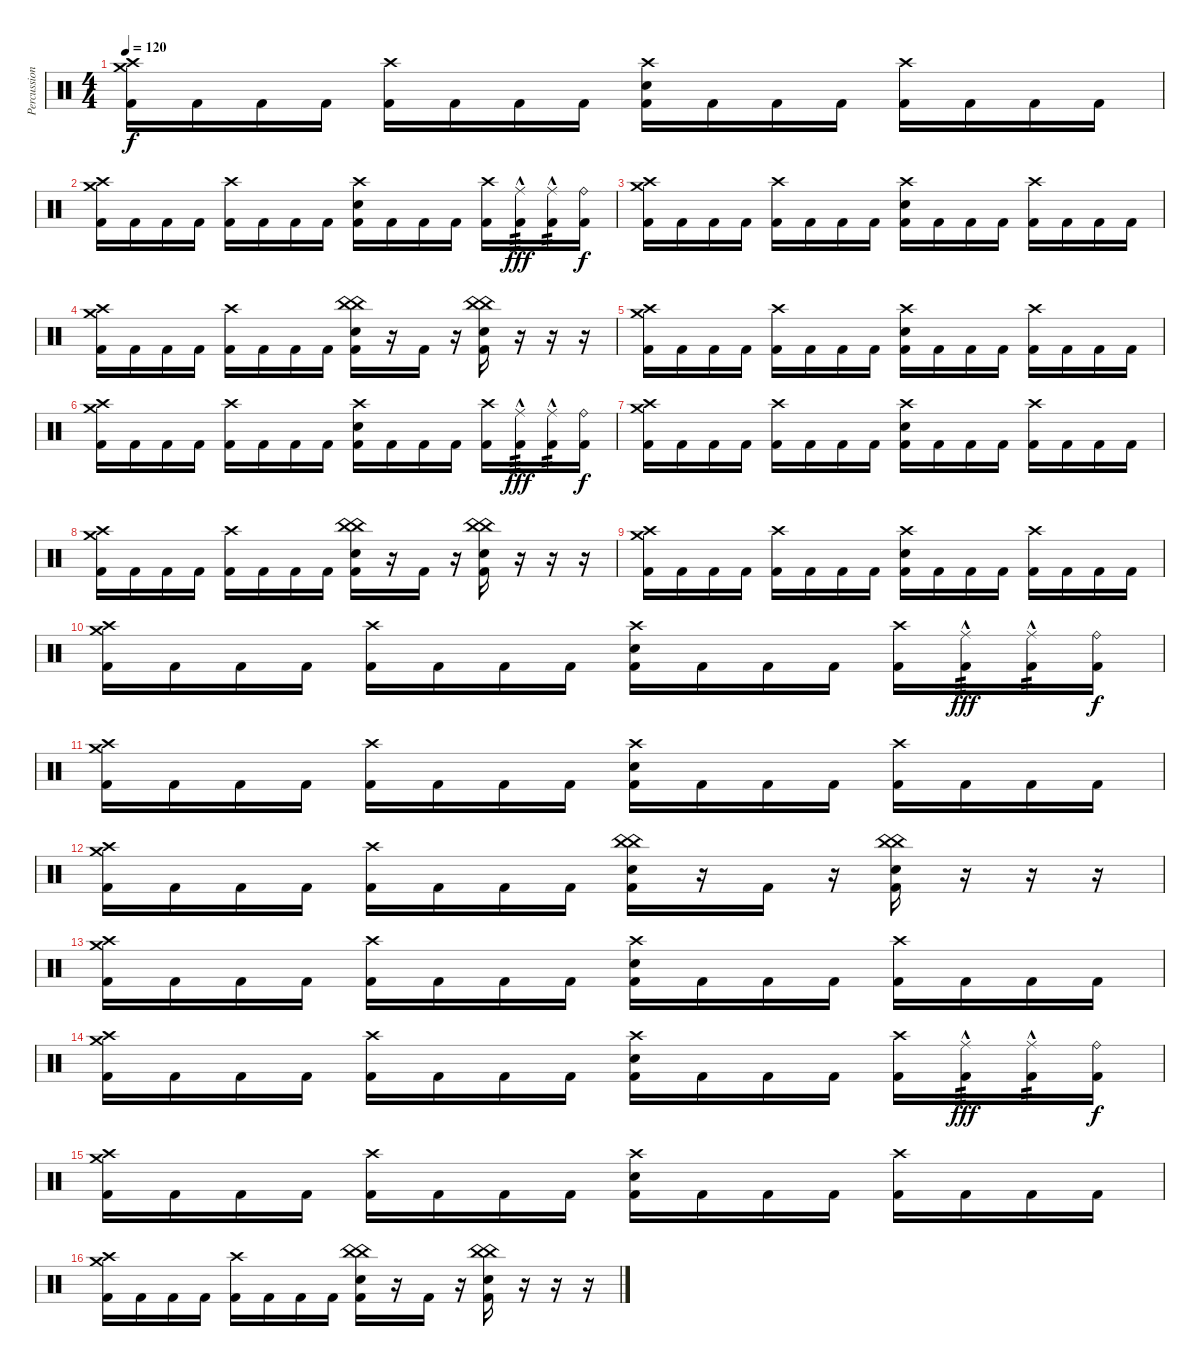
\track ("Percussion" "Percussion") {instrument percussion}
\staff {score}
\articulation defaults
\ts (4 4)
\tempo 120
\clef neutral
\ks c
("Crash medium (hit)" "Crash high (hit)" "Kick (hit) 2").16{dy f} "Kick (hit) 2".16 "Kick (hit) 2".16 "Kick (hit) 2".16 ("Crash high (hit)" "Kick (hit) 2").16 "Kick (hit) 2".16 "Kick (hit) 2".16 "Kick (hit) 2".16 ("Crash high (hit)" "Electric Snare (hit)" "Kick (hit) 2").16 "Kick (hit) 2".16 "Kick (hit) 2".16 "Kick (hit) 2".16 ("Crash high (hit)" "Kick (hit) 2").16 "Kick (hit) 2".16 "Kick (hit) 2".16 "Kick (hit) 2".16 |
("Crash medium (hit)" "Crash high (hit)" "Kick (hit) 2").16 "Kick (hit) 2".16 "Kick (hit) 2".16 "Kick (hit) 2".16 ("Crash high (hit)" "Kick (hit) 2").16 "Kick (hit) 2".16 "Kick (hit) 2".16 "Kick (hit) 2".16 ("Crash high (hit)" "Electric Snare (hit)" "Kick (hit) 2").16 "Kick (hit) 2".16 "Kick (hit) 2".16 "Kick (hit) 2".16 ("Crash high (hit)" "Kick (hit) 2").16 ("Ride (middle)"{hac} "Kick (hit) 2").16{tp 3 dy fff} ("Ride (middle)"{hac} "Kick (hit) 2").16{tp 2} ("Ride (bell)" "Kick (hit) 2").16{dy f} |
("Crash medium (hit)" "Crash high (hit)" "Kick (hit) 2").16 "Kick (hit) 2".16 "Kick (hit) 2".16 "Kick (hit) 2".16 ("Crash high (hit)" "Kick (hit) 2").16 "Kick (hit) 2".16 "Kick (hit) 2".16 "Kick (hit) 2".16 ("Crash high (hit)" "Electric Snare (hit)" "Kick (hit) 2").16 "Kick (hit) 2".16 "Kick (hit) 2".16 "Kick (hit) 2".16 ("Crash high (hit)" "Kick (hit) 2").16 "Kick (hit) 2".16 "Kick (hit) 2".16 "Kick (hit) 2".16 |
("Crash medium (hit)" "Crash high (hit)" "Kick (hit) 2").16 "Kick (hit) 2".16 "Kick (hit) 2".16 "Kick (hit) 2".16 ("Crash high (hit)" "Kick (hit) 2").16 "Kick (hit) 2".16 "Kick (hit) 2".16 "Kick (hit) 2".16 ("China (hit)" "China (hit)" "Electric Snare (hit)" "Kick (hit) 2").16 r.16 "Kick (hit) 2".16 r.16 ("China (hit)" "China (hit)" "Electric Snare (hit)" "Kick (hit) 2").16 r.16 r.16 r.16 |
("Crash medium (hit)" "Crash high (hit)" "Kick (hit) 2").16 "Kick (hit) 2".16 "Kick (hit) 2".16 "Kick (hit) 2".16 ("Crash high (hit)" "Kick (hit) 2").16 "Kick (hit) 2".16 "Kick (hit) 2".16 "Kick (hit) 2".16 ("Crash high (hit)" "Electric Snare (hit)" "Kick (hit) 2").16 "Kick (hit) 2".16 "Kick (hit) 2".16 "Kick (hit) 2".16 ("Crash high (hit)" "Kick (hit) 2").16 "Kick (hit) 2".16 "Kick (hit) 2".16 "Kick (hit) 2".16 |
("Crash medium (hit)" "Crash high (hit)" "Kick (hit) 2").16 "Kick (hit) 2".16 "Kick (hit) 2".16 "Kick (hit) 2".16 ("Crash high (hit)" "Kick (hit) 2").16 "Kick (hit) 2".16 "Kick (hit) 2".16 "Kick (hit) 2".16 ("Crash high (hit)" "Electric Snare (hit)" "Kick (hit) 2").16 "Kick (hit) 2".16 "Kick (hit) 2".16 "Kick (hit) 2".16 ("Crash high (hit)" "Kick (hit) 2").16 ("Ride (middle)"{hac} "Kick (hit) 2").16{tp 3 dy fff} ("Ride (middle)"{hac} "Kick (hit) 2").16{tp 2} ("Ride (bell)" "Kick (hit) 2").16{dy f} |
("Crash medium (hit)" "Crash high (hit)" "Kick (hit) 2").16 "Kick (hit) 2".16 "Kick (hit) 2".16 "Kick (hit) 2".16 ("Crash high (hit)" "Kick (hit) 2").16 "Kick (hit) 2".16 "Kick (hit) 2".16 "Kick (hit) 2".16 ("Crash high (hit)" "Electric Snare (hit)" "Kick (hit) 2").16 "Kick (hit) 2".16 "Kick (hit) 2".16 "Kick (hit) 2".16 ("Crash high (hit)" "Kick (hit) 2").16 "Kick (hit) 2".16 "Kick (hit) 2".16 "Kick (hit) 2".16 |
("Crash medium (hit)" "Crash high (hit)" "Kick (hit) 2").16 "Kick (hit) 2".16 "Kick (hit) 2".16 "Kick (hit) 2".16 ("Crash high (hit)" "Kick (hit) 2").16 "Kick (hit) 2".16 "Kick (hit) 2".16 "Kick (hit) 2".16 ("China (hit)" "China (hit)" "Electric Snare (hit)" "Kick (hit) 2").16 r.16 "Kick (hit) 2".16 r.16 ("China (hit)" "China (hit)" "Electric Snare (hit)" "Kick (hit) 2").16 r.16 r.16 r.16 |
("Crash medium (hit)" "Crash high (hit)" "Kick (hit) 2").16 "Kick (hit) 2".16 "Kick (hit) 2".16 "Kick (hit) 2".16 ("Crash high (hit)" "Kick (hit) 2").16 "Kick (hit) 2".16 "Kick (hit) 2".16 "Kick (hit) 2".16 ("Crash high (hit)" "Electric Snare (hit)" "Kick (hit) 2").16 "Kick (hit) 2".16 "Kick (hit) 2".16 "Kick (hit) 2".16 ("Crash high (hit)" "Kick (hit) 2").16 "Kick (hit) 2".16 "Kick (hit) 2".16 "Kick (hit) 2".16 |
("Crash medium (hit)" "Crash high (hit)" "Kick (hit) 2").16 "Kick (hit) 2".16 "Kick (hit) 2".16 "Kick (hit) 2".16 ("Crash high (hit)" "Kick (hit) 2").16 "Kick (hit) 2".16 "Kick (hit) 2".16 "Kick (hit) 2".16 ("Crash high (hit)" "Electric Snare (hit)" "Kick (hit) 2").16 "Kick (hit) 2".16 "Kick (hit) 2".16 "Kick (hit) 2".16 ("Crash high (hit)" "Kick (hit) 2").16 ("Ride (middle)"{hac} "Kick (hit) 2").16{tp 3 dy fff} ("Ride (middle)"{hac} "Kick (hit) 2").16{tp 2} ("Ride (bell)" "Kick (hit) 2").16{dy f} |
("Crash medium (hit)" "Crash high (hit)" "Kick (hit) 2").16 "Kick (hit) 2".16 "Kick (hit) 2".16 "Kick (hit) 2".16 ("Crash high (hit)" "Kick (hit) 2").16 "Kick (hit) 2".16 "Kick (hit) 2".16 "Kick (hit) 2".16 ("Crash high (hit)" "Electric Snare (hit)" "Kick (hit) 2").16 "Kick (hit) 2".16 "Kick (hit) 2".16 "Kick (hit) 2".16 ("Crash high (hit)" "Kick (hit) 2").16 "Kick (hit) 2".16 "Kick (hit) 2".16 "Kick (hit) 2".16 |
("Crash medium (hit)" "Crash high (hit)" "Kick (hit) 2").16 "Kick (hit) 2".16 "Kick (hit) 2".16 "Kick (hit) 2".16 ("Crash high (hit)" "Kick (hit) 2").16 "Kick (hit) 2".16 "Kick (hit) 2".16 "Kick (hit) 2".16 ("China (hit)" "China (hit)" "Electric Snare (hit)" "Kick (hit) 2").16 r.16 "Kick (hit) 2".16 r.16 ("China (hit)" "China (hit)" "Electric Snare (hit)" "Kick (hit) 2").16 r.16 r.16 r.16 |
("Crash medium (hit)" "Crash high (hit)" "Kick (hit) 2").16 "Kick (hit) 2".16 "Kick (hit) 2".16 "Kick (hit) 2".16 ("Crash high (hit)" "Kick (hit) 2").16 "Kick (hit) 2".16 "Kick (hit) 2".16 "Kick (hit) 2".16 ("Crash high (hit)" "Electric Snare (hit)" "Kick (hit) 2").16 "Kick (hit) 2".16 "Kick (hit) 2".16 "Kick (hit) 2".16 ("Crash high (hit)" "Kick (hit) 2").16 "Kick (hit) 2".16 "Kick (hit) 2".16 "Kick (hit) 2".16 |
("Crash medium (hit)" "Crash high (hit)" "Kick (hit) 2").16 "Kick (hit) 2".16 "Kick (hit) 2".16 "Kick (hit) 2".16 ("Crash high (hit)" "Kick (hit) 2").16 "Kick (hit) 2".16 "Kick (hit) 2".16 "Kick (hit) 2".16 ("Crash high (hit)" "Electric Snare (hit)" "Kick (hit) 2").16 "Kick (hit) 2".16 "Kick (hit) 2".16 "Kick (hit) 2".16 ("Crash high (hit)" "Kick (hit) 2").16 ("Ride (middle)"{hac} "Kick (hit) 2").16{tp 3 dy fff} ("Ride (middle)"{hac} "Kick (hit) 2").16{tp 2} ("Ride (bell)" "Kick (hit) 2").16{dy f} |
("Crash medium (hit)" "Crash high (hit)" "Kick (hit) 2").16 "Kick (hit) 2".16 "Kick (hit) 2".16 "Kick (hit) 2".16 ("Crash high (hit)" "Kick (hit) 2").16 "Kick (hit) 2".16 "Kick (hit) 2".16 "Kick (hit) 2".16 ("Crash high (hit)" "Electric Snare (hit)" "Kick (hit) 2").16 "Kick (hit) 2".16 "Kick (hit) 2".16 "Kick (hit) 2".16 ("Crash high (hit)" "Kick (hit) 2").16 "Kick (hit) 2".16 "Kick (hit) 2".16 "Kick (hit) 2".16 |
("Crash medium (hit)" "Crash high (hit)" "Kick (hit) 2").16 "Kick (hit) 2".16 "Kick (hit) 2".16 "Kick (hit) 2".16 ("Crash high (hit)" "Kick (hit) 2").16 "Kick (hit) 2".16 "Kick (hit) 2".16 "Kick (hit) 2".16 ("China (hit)" "China (hit)" "Electric Snare (hit)" "Kick (hit) 2").16 r.16 "Kick (hit) 2".16 r.16 ("China (hit)" "China (hit)" "Electric Snare (hit)" "Kick (hit) 2").16 r.16 r.16 r.16
